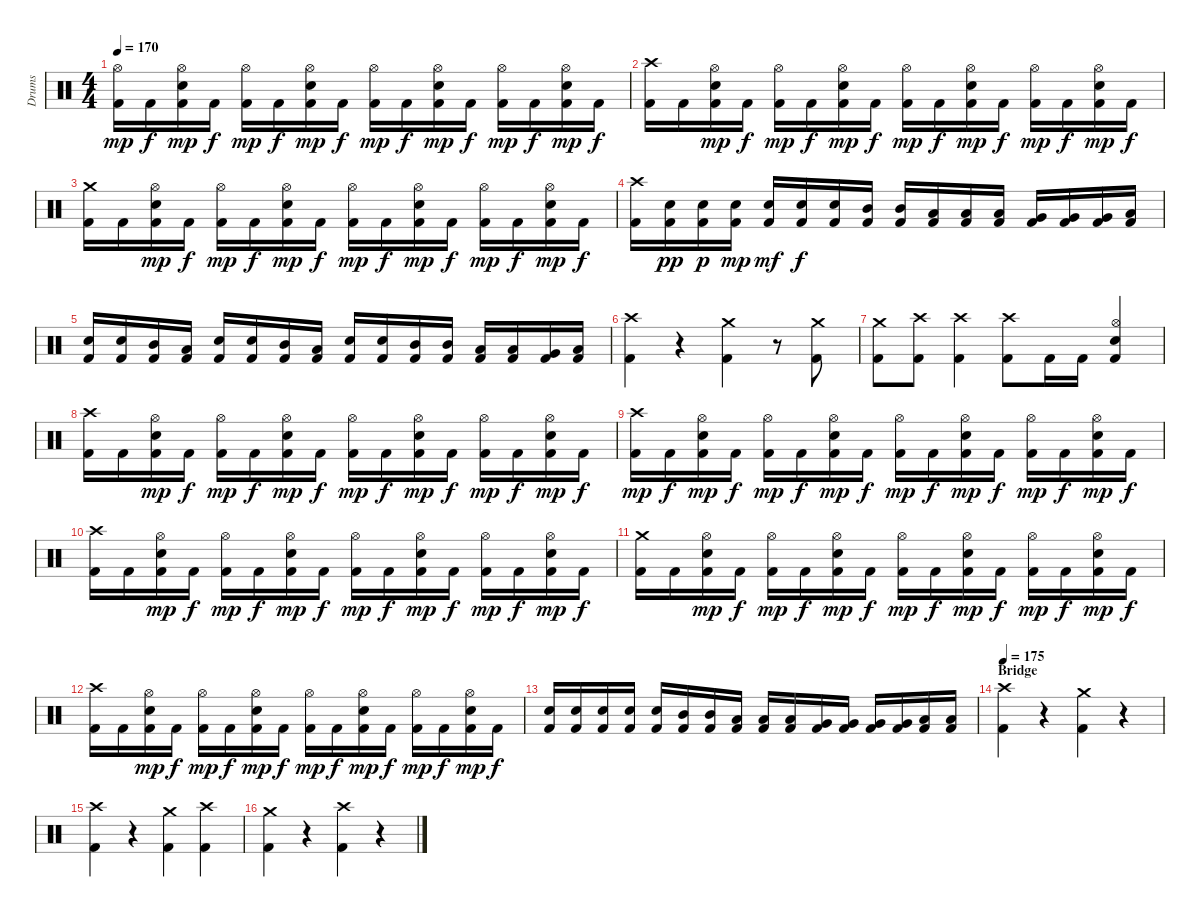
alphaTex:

\track ("Drums" "Drums") {instrument percussion}
\staff {score}
\articulation defaults
\ts (4 4)
\tempo 170
\clef neutral
\ks c
("Kick (hit) 2" "Hi-Hat (open)").16{dy mp} "Kick (hit) 2".16{dy f} ("Kick (hit) 2" "Electric Snare (hit)" "Hi-Hat (open)").16{dy mp} "Kick (hit) 2".16{dy f} ("Kick (hit) 2" "Hi-Hat (open)").16{dy mp} "Kick (hit) 2".16{dy f} ("Kick (hit) 2" "Electric Snare (hit)" "Hi-Hat (open)").16{dy mp} "Kick (hit) 2".16{dy f} ("Kick (hit) 2" "Hi-Hat (open)").16{dy mp} "Kick (hit) 2".16{dy f} ("Kick (hit) 2" "Electric Snare (hit)" "Hi-Hat (open)").16{dy mp} "Kick (hit) 2".16{dy f} ("Kick (hit) 2" "Hi-Hat (open)").16{dy mp} "Kick (hit) 2".16{dy f} ("Kick (hit) 2" "Electric Snare (hit)" "Hi-Hat (open)").16{dy mp} "Kick (hit) 2".16{dy f} |
("Kick (hit) 2" "Crash high (hit)").16 "Kick (hit) 2".16 ("Kick (hit) 2" "Electric Snare (hit)" "Hi-Hat (open)").16{dy mp} "Kick (hit) 2".16{dy f} ("Kick (hit) 2" "Hi-Hat (open)").16{dy mp} "Kick (hit) 2".16{dy f} ("Kick (hit) 2" "Electric Snare (hit)" "Hi-Hat (open)").16{dy mp} "Kick (hit) 2".16{dy f} ("Kick (hit) 2" "Hi-Hat (open)").16{dy mp} "Kick (hit) 2".16{dy f} ("Kick (hit) 2" "Electric Snare (hit)" "Hi-Hat (open)").16{dy mp} "Kick (hit) 2".16{dy f} ("Kick (hit) 2" "Hi-Hat (open)").16{dy mp} "Kick (hit) 2".16{dy f} ("Kick (hit) 2" "Electric Snare (hit)" "Hi-Hat (open)").16{dy mp} "Kick (hit) 2".16{dy f} |
("Kick (hit) 2" "Crash medium (hit)").16 "Kick (hit) 2".16 ("Kick (hit) 2" "Electric Snare (hit)" "Hi-Hat (open)").16{dy mp} "Kick (hit) 2".16{dy f} ("Kick (hit) 2" "Hi-Hat (open)").16{dy mp} "Kick (hit) 2".16{dy f} ("Kick (hit) 2" "Electric Snare (hit)" "Hi-Hat (open)").16{dy mp} "Kick (hit) 2".16{dy f} ("Kick (hit) 2" "Hi-Hat (open)").16{dy mp} "Kick (hit) 2".16{dy f} ("Kick (hit) 2" "Electric Snare (hit)" "Hi-Hat (open)").16{dy mp} "Kick (hit) 2".16{dy f} ("Kick (hit) 2" "Hi-Hat (open)").16{dy mp} "Kick (hit) 2".16{dy f} ("Kick (hit) 2" "Electric Snare (hit)" "Hi-Hat (open)").16{dy mp} "Kick (hit) 2".16{dy f} |
("Kick (hit) 2" "Crash high (hit)").16 ("Kick (hit) 2" "Electric Snare (hit)").16{dy pp} ("Kick (hit) 2" "Electric Snare (hit)").16{dy p} ("Kick (hit) 2" "Electric Snare (hit)").16{dy mp} ("Kick (hit) 2" "Electric Snare (hit)").16{dy mf} ("Kick (hit) 2" "Electric Snare (hit)").16{dy f} ("Kick (hit) 2" "Electric Snare (hit)").16 ("Kick (hit) 2" "Mid Tom (hit)").16 ("Kick (hit) 2" "Mid Tom (hit)").16 ("Kick (hit) 2" "Low Tom (hit)").16 ("Kick (hit) 2" "Low Tom (hit)").16 ("Kick (hit) 2" "Low Tom (hit)").16 ("Kick (hit) 2" "Very Low Tom (hit)").16 ("Kick (hit) 2" "Very Low Tom (hit)").16 ("Kick (hit) 2" "Very Low Tom (hit)").16 ("Kick (hit) 2" "Low Floor Tom (hit)").16 |
("Kick (hit) 2" "Electric Snare (hit)").16 ("Kick (hit) 2" "Electric Snare (hit)").16 ("Kick (hit) 2" "Mid Tom (hit)").16 ("Kick (hit) 2" "Low Tom (hit)").16 ("Kick (hit) 2" "Electric Snare (hit)").16 ("Kick (hit) 2" "Electric Snare (hit)").16 ("Kick (hit) 2" "Mid Tom (hit)").16 ("Kick (hit) 2" "Low Tom (hit)").16 ("Kick (hit) 2" "Electric Snare (hit)").16 ("Kick (hit) 2" "Electric Snare (hit)").16 ("Kick (hit) 2" "Mid Tom (hit)").16 ("Kick (hit) 2" "Mid Tom (hit)").16 ("Kick (hit) 2" "Low Tom (hit)").16 ("Kick (hit) 2" "Low Tom (hit)").16 ("Kick (hit) 2" "Very Low Tom (hit)").16 ("Kick (hit) 2" "Low Floor Tom (hit)").16 |
("Kick (hit) 2" "Crash high (hit)").4 r.4 ("Kick (hit) 2" "Crash medium (hit)").4 r.8 ("Kick (hit) 2" "Crash medium (hit)").8 |
("Kick (hit) 2" "Crash medium (hit)").8 ("Kick (hit) 2" "Crash high (hit)").8 ("Kick (hit) 2" "Crash high (hit)").4 ("Kick (hit) 2" "Crash high (hit)").8 "Kick (hit) 2".16 "Kick (hit) 2".16 ("Kick (hit) 2" "Electric Snare (hit)" "Hi-Hat (open)").4 |
("Kick (hit) 2" "Crash high (hit)").16 "Kick (hit) 2".16 ("Kick (hit) 2" "Electric Snare (hit)" "Hi-Hat (open)").16{dy mp} "Kick (hit) 2".16{dy f} ("Kick (hit) 2" "Hi-Hat (open)").16{dy mp} "Kick (hit) 2".16{dy f} ("Kick (hit) 2" "Electric Snare (hit)" "Hi-Hat (open)").16{dy mp} "Kick (hit) 2".16{dy f} ("Kick (hit) 2" "Hi-Hat (open)").16{dy mp} "Kick (hit) 2".16{dy f} ("Kick (hit) 2" "Electric Snare (hit)" "Hi-Hat (open)").16{dy mp} "Kick (hit) 2".16{dy f} ("Kick (hit) 2" "Hi-Hat (open)").16{dy mp} "Kick (hit) 2".16{dy f} ("Kick (hit) 2" "Electric Snare (hit)" "Hi-Hat (open)").16{dy mp} "Kick (hit) 2".16{dy f} |
("Kick (hit) 2" "Crash high (hit)").16{dy mp} "Kick (hit) 2".16{dy f} ("Kick (hit) 2" "Electric Snare (hit)" "Hi-Hat (open)").16{dy mp} "Kick (hit) 2".16{dy f} ("Kick (hit) 2" "Hi-Hat (open)").16{dy mp} "Kick (hit) 2".16{dy f} ("Kick (hit) 2" "Electric Snare (hit)" "Hi-Hat (open)").16{dy mp} "Kick (hit) 2".16{dy f} ("Kick (hit) 2" "Hi-Hat (open)").16{dy mp} "Kick (hit) 2".16{dy f} ("Kick (hit) 2" "Electric Snare (hit)" "Hi-Hat (open)").16{dy mp} "Kick (hit) 2".16{dy f} ("Kick (hit) 2" "Hi-Hat (open)").16{dy mp} "Kick (hit) 2".16{dy f} ("Kick (hit) 2" "Electric Snare (hit)" "Hi-Hat (open)").16{dy mp} "Kick (hit) 2".16{dy f} |
("Kick (hit) 2" "Crash high (hit)").16 "Kick (hit) 2".16 ("Kick (hit) 2" "Electric Snare (hit)" "Hi-Hat (open)").16{dy mp} "Kick (hit) 2".16{dy f} ("Kick (hit) 2" "Hi-Hat (open)").16{dy mp} "Kick (hit) 2".16{dy f} ("Kick (hit) 2" "Electric Snare (hit)" "Hi-Hat (open)").16{dy mp} "Kick (hit) 2".16{dy f} ("Kick (hit) 2" "Hi-Hat (open)").16{dy mp} "Kick (hit) 2".16{dy f} ("Kick (hit) 2" "Electric Snare (hit)" "Hi-Hat (open)").16{dy mp} "Kick (hit) 2".16{dy f} ("Kick (hit) 2" "Hi-Hat (open)").16{dy mp} "Kick (hit) 2".16{dy f} ("Kick (hit) 2" "Electric Snare (hit)" "Hi-Hat (open)").16{dy mp} "Kick (hit) 2".16{dy f} |
("Kick (hit) 2" "Crash medium (hit)").16 "Kick (hit) 2".16 ("Kick (hit) 2" "Electric Snare (hit)" "Hi-Hat (open)").16{dy mp} "Kick (hit) 2".16{dy f} ("Kick (hit) 2" "Hi-Hat (open)").16{dy mp} "Kick (hit) 2".16{dy f} ("Kick (hit) 2" "Electric Snare (hit)" "Hi-Hat (open)").16{dy mp} "Kick (hit) 2".16{dy f} ("Kick (hit) 2" "Hi-Hat (open)").16{dy mp} "Kick (hit) 2".16{dy f} ("Kick (hit) 2" "Electric Snare (hit)" "Hi-Hat (open)").16{dy mp} "Kick (hit) 2".16{dy f} ("Kick (hit) 2" "Hi-Hat (open)").16{dy mp} "Kick (hit) 2".16{dy f} ("Kick (hit) 2" "Electric Snare (hit)" "Hi-Hat (open)").16{dy mp} "Kick (hit) 2".16{dy f} |
("Kick (hit) 2" "Crash high (hit)").16 "Kick (hit) 2".16 ("Kick (hit) 2" "Electric Snare (hit)" "Hi-Hat (open)").16{dy mp} "Kick (hit) 2".16{dy f} ("Kick (hit) 2" "Hi-Hat (open)").16{dy mp} "Kick (hit) 2".16{dy f} ("Kick (hit) 2" "Electric Snare (hit)" "Hi-Hat (open)").16{dy mp} "Kick (hit) 2".16{dy f} ("Kick (hit) 2" "Hi-Hat (open)").16{dy mp} "Kick (hit) 2".16{dy f} ("Kick (hit) 2" "Electric Snare (hit)" "Hi-Hat (open)").16{dy mp} "Kick (hit) 2".16{dy f} ("Kick (hit) 2" "Hi-Hat (open)").16{dy mp} "Kick (hit) 2".16{dy f} ("Kick (hit) 2" "Electric Snare (hit)" "Hi-Hat (open)").16{dy mp} "Kick (hit) 2".16{dy f} |
("Kick (hit) 2" "Electric Snare (hit)").16 ("Kick (hit) 2" "Electric Snare (hit)").16 ("Kick (hit) 2" "Electric Snare (hit)").16 ("Kick (hit) 2" "Electric Snare (hit)").16 ("Kick (hit) 2" "Electric Snare (hit)").16 ("Kick (hit) 2" "Mid Tom (hit)").16 ("Kick (hit) 2" "Mid Tom (hit)").16 ("Kick (hit) 2" "Low Tom (hit)").16 ("Kick (hit) 2" "Low Tom (hit)").16 ("Kick (hit) 2" "Low Tom (hit)").16 ("Kick (hit) 2" "Very Low Tom (hit)").16 ("Kick (hit) 2" "Very Low Tom (hit)").16 ("Kick (hit) 2" "Very Low Tom (hit)").16 ("Kick (hit) 2" "Very Low Tom (hit)").16 ("Kick (hit) 2" "Low Floor Tom (hit)").16 ("Kick (hit) 2" "Low Floor Tom (hit)").16 |
\section ("" "Bridge")
\tempo 175
("Kick (hit) 2" "Crash high (hit)").4 r.4 ("Kick (hit) 2" "Crash medium (hit)").4 r.4 |
("Kick (hit) 2" "Crash high (hit)").4 r.4 ("Kick (hit) 2" "Crash medium (hit)").4 ("Kick (hit) 2" "Crash high (hit)").4 |
("Kick (hit) 2" "Crash medium (hit)").4 r.4 ("Kick (hit) 2" "Crash high (hit)").4 r.4
